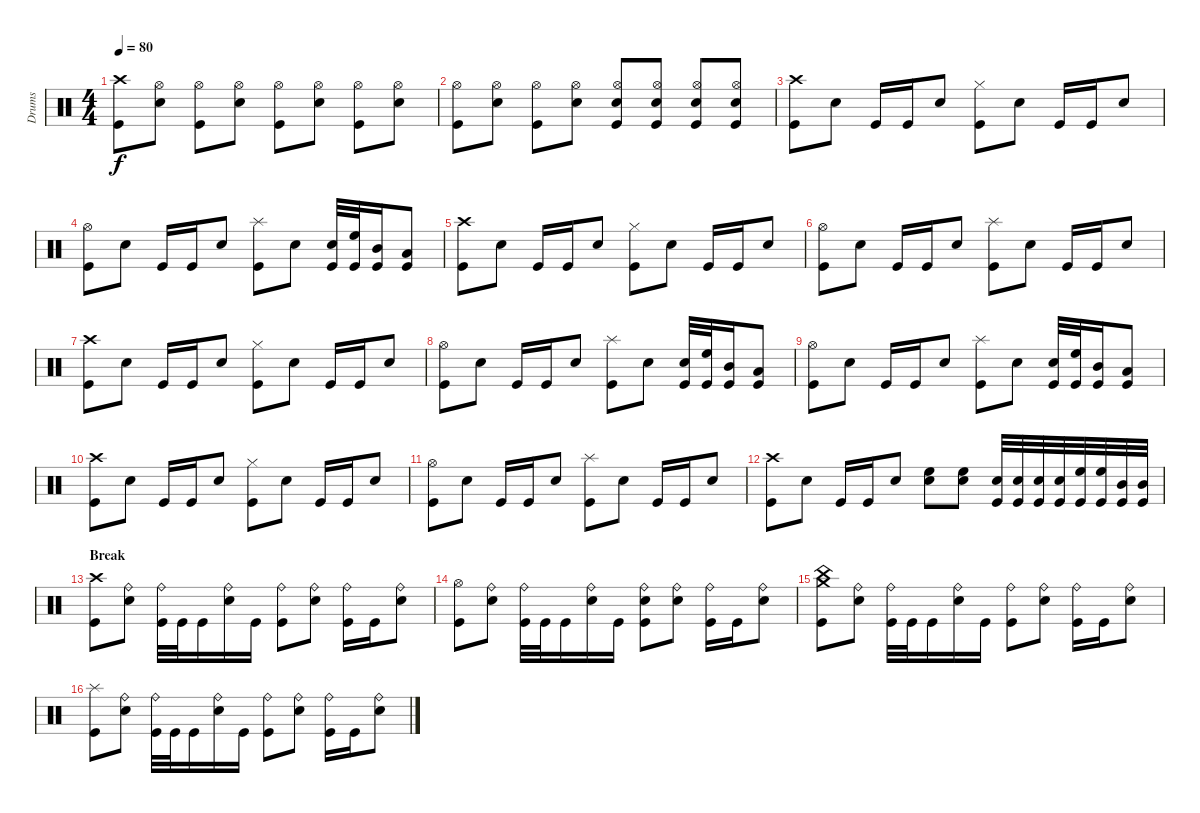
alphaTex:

\track ("Drums" "Drums") {instrument percussion}
\staff {score}
\articulation defaults
\ts (4 4)
\tempo 80
\clef neutral
\ks c
("Crash high (hit)" "Kick (hit)").8{dy f} ("Hi-Hat (open)" "Electric Snare (hit)").8 ("Hi-Hat (open)" "Kick (hit)").8 ("Hi-Hat (open)" "Electric Snare (hit)").8 ("Hi-Hat (open)" "Kick (hit)").8 ("Hi-Hat (open)" "Electric Snare (hit)").8 ("Hi-Hat (open)" "Kick (hit)").8 ("Hi-Hat (open)" "Electric Snare (hit)").8 |
("Hi-Hat (open)" "Kick (hit)").8 ("Hi-Hat (open)" "Electric Snare (hit)").8 ("Hi-Hat (open)" "Kick (hit)").8 ("Hi-Hat (open)" "Electric Snare (hit)").8 ("Hi-Hat (open)" "Electric Snare (hit)" "Kick (hit)").8 ("Hi-Hat (open)" "Electric Snare (hit)" "Kick (hit)").8 ("Hi-Hat (open)" "Electric Snare (hit)" "Kick (hit)").8 ("Hi-Hat (open)" "Electric Snare (hit)" "Kick (hit)").8 |
("Crash high (hit)" "Kick (hit)").8 "Electric Snare (hit)".8 "Kick (hit)".16 "Kick (hit)".16 "Electric Snare (hit)".8 ("Hi-Hat (closed)" "Kick (hit)").8 "Electric Snare (hit)".8 "Kick (hit)".16 "Kick (hit)".16 "Electric Snare (hit)".8 |
("Hi-Hat (open)" "Kick (hit)").8 "Electric Snare (hit)".8 "Kick (hit)".16 "Kick (hit)".16 "Electric Snare (hit)".8 ("Splash (hit)" "Kick (hit)").8 "Electric Snare (hit)".8 ("Electric Snare (hit)" "Kick (hit)").32 ("High Floor Tom (hit)" "Kick (hit)").32 ("Mid Tom (hit)" "Kick (hit)").16 ("Low Tom (hit)" "Kick (hit)").8 |
("Crash high (hit)" "Kick (hit)").8 "Electric Snare (hit)".8 "Kick (hit)".16 "Kick (hit)".16 "Electric Snare (hit)".8 ("Hi-Hat (closed)" "Kick (hit)").8 "Electric Snare (hit)".8 "Kick (hit)".16 "Kick (hit)".16 "Electric Snare (hit)".8 |
("Hi-Hat (open)" "Kick (hit)").8 "Electric Snare (hit)".8 "Kick (hit)".16 "Kick (hit)".16 "Electric Snare (hit)".8 ("Splash (hit)" "Kick (hit)").8 "Electric Snare (hit)".8 "Kick (hit)".16 "Kick (hit)".16 "Electric Snare (hit)".8 |
("Crash high (hit)" "Kick (hit)").8 "Electric Snare (hit)".8 "Kick (hit)".16 "Kick (hit)".16 "Electric Snare (hit)".8 ("Hi-Hat (closed)" "Kick (hit)").8 "Electric Snare (hit)".8 "Kick (hit)".16 "Kick (hit)".16 "Electric Snare (hit)".8 |
("Hi-Hat (open)" "Kick (hit)").8 "Electric Snare (hit)".8 "Kick (hit)".16 "Kick (hit)".16 "Electric Snare (hit)".8 ("Splash (hit)" "Kick (hit)").8 "Electric Snare (hit)".8 ("Electric Snare (hit)" "Kick (hit)").32 ("High Floor Tom (hit)" "Kick (hit)").32 ("Mid Tom (hit)" "Kick (hit)").16 ("Low Tom (hit)" "Kick (hit)").8 |
("Hi-Hat (open)" "Kick (hit)").8 "Electric Snare (hit)".8 "Kick (hit)".16 "Kick (hit)".16 "Electric Snare (hit)".8 ("Splash (hit)" "Kick (hit)").8 "Electric Snare (hit)".8 ("Electric Snare (hit)" "Kick (hit)").32 ("High Floor Tom (hit)" "Kick (hit)").32 ("Mid Tom (hit)" "Kick (hit)").16 ("Low Tom (hit)" "Kick (hit)").8 |
("Crash high (hit)" "Kick (hit)").8 "Electric Snare (hit)".8 "Kick (hit)".16 "Kick (hit)".16 "Electric Snare (hit)".8 ("Hi-Hat (closed)" "Kick (hit)").8 "Electric Snare (hit)".8 "Kick (hit)".16 "Kick (hit)".16 "Electric Snare (hit)".8 |
("Hi-Hat (open)" "Kick (hit)").8 "Electric Snare (hit)".8 "Kick (hit)".16 "Kick (hit)".16 "Electric Snare (hit)".8 ("Splash (hit)" "Kick (hit)").8 "Electric Snare (hit)".8 "Kick (hit)".16 "Kick (hit)".16 "Electric Snare (hit)".8 |
("Crash high (hit)" "Kick (hit)").8 "Electric Snare (hit)".8 "Kick (hit)".16 "Kick (hit)".16 "Electric Snare (hit)".8 ("High Floor Tom (hit)" "Electric Snare (hit)").8 ("High Floor Tom (hit)" "Electric Snare (hit)").8 ("Electric Snare (hit)" "Kick (hit)").32 ("Electric Snare (hit)" "Kick (hit)").32 ("Electric Snare (hit)" "Kick (hit)").32 ("Electric Snare (hit)" "Kick (hit)").32 ("High Floor Tom (hit)" "Kick (hit)").32 ("High Floor Tom (hit)" "Kick (hit)").32 ("Mid Tom (hit)" "Kick (hit)").32 ("Mid Tom (hit)" "Kick (hit)").32 |
\section ("" "Break")
("Crash high (hit)" "Kick (hit)").8 ("Ride (bell)" "Electric Snare (hit)").8 ("Ride (bell)" "Kick (hit)").32 "Kick (hit)".32 "Kick (hit)".16 ("Ride (bell)" "Electric Snare (hit)").16 "Kick (hit)".16 ("Ride (bell)" "Kick (hit)").8 ("Ride (bell)" "Electric Snare (hit)").8 ("Ride (bell)" "Kick (hit)").16 "Kick (hit)".16 ("Ride (bell)" "Electric Snare (hit)").8 |
("Hi-Hat (open)" "Kick (hit)").8 ("Ride (bell)" "Electric Snare (hit)").8 ("Ride (bell)" "Kick (hit)").32 "Kick (hit)".32 "Kick (hit)".16 ("Ride (bell)" "Electric Snare (hit)").16 "Kick (hit)".16 ("Ride (bell)" "Electric Snare (hit)" "Kick (hit)").8 ("Ride (bell)" "Electric Snare (hit)").8 ("Ride (bell)" "Kick (hit)").16 "Kick (hit)".16 ("Ride (bell)" "Electric Snare (hit)").8 |
("China (hit)" "Crash medium (hit)" "Kick (hit)").8 ("Ride (bell)" "Electric Snare (hit)").8 ("Ride (bell)" "Kick (hit)").32 "Kick (hit)".32 "Kick (hit)".16 ("Ride (bell)" "Electric Snare (hit)").16 "Kick (hit)".16 ("Ride (bell)" "Kick (hit)").8 ("Ride (bell)" "Electric Snare (hit)").8 ("Ride (bell)" "Kick (hit)").16 "Kick (hit)".16 ("Ride (bell)" "Electric Snare (hit)").8 |
("Splash (hit)" "Kick (hit)").8 ("Ride (bell)" "Electric Snare (hit)").8 ("Ride (bell)" "Kick (hit)").32 "Kick (hit)".32 "Kick (hit)".16 ("Ride (bell)" "Electric Snare (hit)").16 "Kick (hit)".16 ("Ride (bell)" "Kick (hit)").8 ("Ride (bell)" "Electric Snare (hit)").8 ("Ride (bell)" "Kick (hit)").16 "Kick (hit)".16 ("Ride (bell)" "Electric Snare (hit)").8
